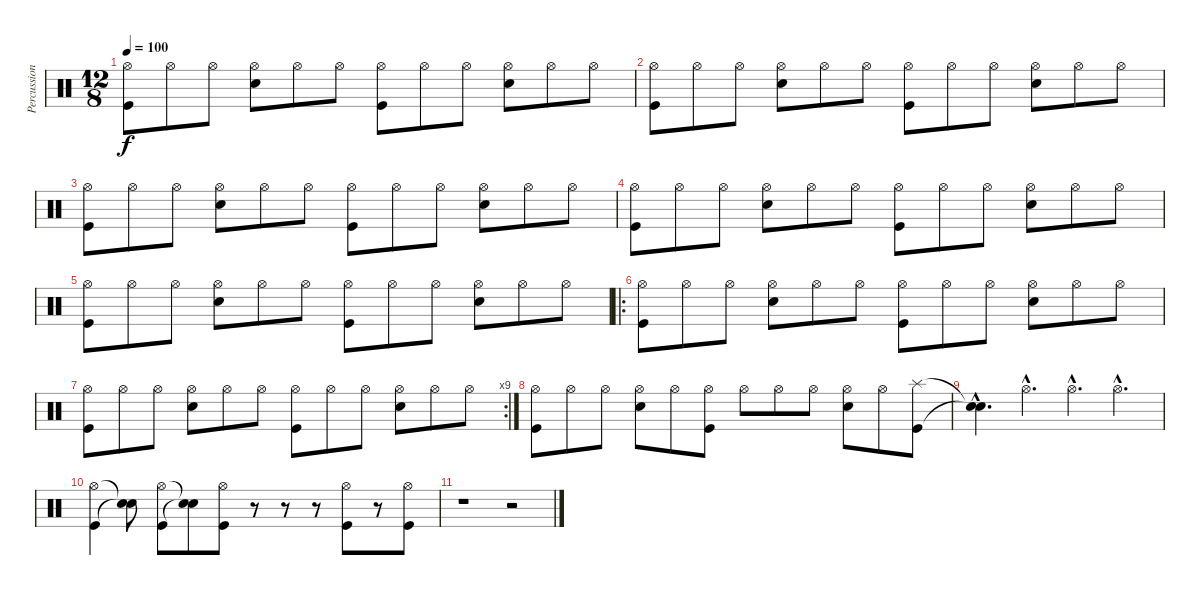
\track ("Percussion" "Percussion") {instrument percussion}
\staff {score}
\articulation defaults
\ts (12 8)
\tempo 100
\clef neutral
\ks c
("Hi-Hat (open)" "Kick (hit)").8{dy f} "Hi-Hat (open)".8 "Hi-Hat (open)".8 ("Hi-Hat (open)" "Snare (hit) 2").8 "Hi-Hat (open)".8 "Hi-Hat (open)".8 ("Hi-Hat (open)" "Kick (hit)").8 "Hi-Hat (open)".8 "Hi-Hat (open)".8 ("Hi-Hat (open)" "Snare (hit) 2").8 "Hi-Hat (open)".8 "Hi-Hat (open)".8 |
("Hi-Hat (open)" "Kick (hit)").8 "Hi-Hat (open)".8 "Hi-Hat (open)".8 ("Hi-Hat (open)" "Snare (hit) 2").8 "Hi-Hat (open)".8 "Hi-Hat (open)".8 ("Hi-Hat (open)" "Kick (hit)").8 "Hi-Hat (open)".8 "Hi-Hat (open)".8 ("Hi-Hat (open)" "Snare (hit) 2").8 "Hi-Hat (open)".8 "Hi-Hat (open)".8 |
("Hi-Hat (open)" "Kick (hit)").8 "Hi-Hat (open)".8 "Hi-Hat (open)".8 ("Hi-Hat (open)" "Snare (hit) 2").8 "Hi-Hat (open)".8 "Hi-Hat (open)".8 ("Hi-Hat (open)" "Kick (hit)").8 "Hi-Hat (open)".8 "Hi-Hat (open)".8 ("Hi-Hat (open)" "Snare (hit) 2").8 "Hi-Hat (open)".8 "Hi-Hat (open)".8 |
("Hi-Hat (open)" "Kick (hit)").8 "Hi-Hat (open)".8 "Hi-Hat (open)".8 ("Hi-Hat (open)" "Snare (hit) 2").8 "Hi-Hat (open)".8 "Hi-Hat (open)".8 ("Hi-Hat (open)" "Kick (hit)").8 "Hi-Hat (open)".8 "Hi-Hat (open)".8 ("Hi-Hat (open)" "Snare (hit) 2").8 "Hi-Hat (open)".8 "Hi-Hat (open)".8 |
("Hi-Hat (open)" "Kick (hit)").8 "Hi-Hat (open)".8 "Hi-Hat (open)".8 ("Hi-Hat (open)" "Snare (hit) 2").8 "Hi-Hat (open)".8 "Hi-Hat (open)".8 ("Hi-Hat (open)" "Kick (hit)").8 "Hi-Hat (open)".8 "Hi-Hat (open)".8 ("Hi-Hat (open)" "Snare (hit) 2").8 "Hi-Hat (open)".8 "Hi-Hat (open)".8 |
\ro
("Hi-Hat (open)" "Kick (hit)").8 "Hi-Hat (open)".8 "Hi-Hat (open)".8 ("Hi-Hat (open)" "Snare (hit) 2").8 "Hi-Hat (open)".8 "Hi-Hat (open)".8 ("Hi-Hat (open)" "Kick (hit)").8 "Hi-Hat (open)".8 "Hi-Hat (open)".8 ("Hi-Hat (open)" "Snare (hit) 2").8 "Hi-Hat (open)".8 "Hi-Hat (open)".8 |
\rc 9
("Hi-Hat (open)" "Kick (hit)").8 "Hi-Hat (open)".8 "Hi-Hat (open)".8 ("Hi-Hat (open)" "Snare (hit) 2").8 "Hi-Hat (open)".8 "Hi-Hat (open)".8 ("Hi-Hat (open)" "Kick (hit)").8 "Hi-Hat (open)".8 "Hi-Hat (open)".8 ("Hi-Hat (open)" "Snare (hit) 2").8 "Hi-Hat (open)".8 "Hi-Hat (open)".8 |
("Hi-Hat (open)" "Kick (hit)").8 "Hi-Hat (open)".8 "Hi-Hat (open)".8 ("Hi-Hat (open)" "Snare (hit) 2").8 "Hi-Hat (open)".8 ("Hi-Hat (open)" "Kick (hit)").8 "Hi-Hat (open)".8 "Hi-Hat (open)".8 "Hi-Hat (open)".8 ("Hi-Hat (open)" "Snare (hit) 2").8 "Hi-Hat (open)".8 ("Splash (hit)" "Kick (hit)").8 |
("Snare (hit)"{hac t} "Snare (hit)"{hac t}).4{d} "Hi-Hat (open)"{hac}.4{d} "Hi-Hat (open)"{hac}.4{d} "Hi-Hat (open)"{hac}.4{d} |
("Hi-Hat (open)" "Kick (hit)").4 ("Snare (hit)"{t} "Snare (hit)"{t}).8 ("Hi-Hat (open)" "Kick (hit)").8 ("Snare (hit)"{t} "Snare (hit)"{t}).8 ("Hi-Hat (open)" "Kick (hit)").8 r.8 r.8 r.8 ("Hi-Hat (open)" "Kick (hit)").8 r.8 ("Hi-Hat (open)" "Kick (hit)").8 |
r.1 r.2
